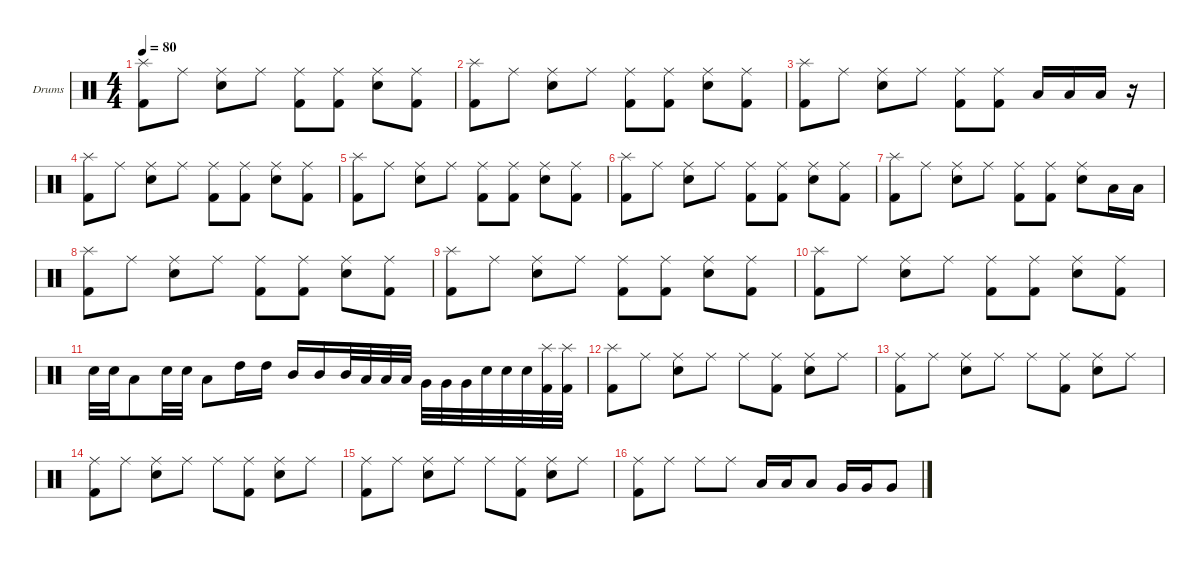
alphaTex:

\hideDynamics
\bracketExtendMode nobrackets
\firstSystemTrackNameOrientation horizontal
\otherSystemsTrackNameOrientation horizontal
\track ("Drumkit" "Drums") {instrument percussion}
\staff {score}
\articulation defaults
\ts (4 4)
\tempo 80
\clef neutral
\ks c
("Splash (hit)" "Kick (hit) 2").8{dy f} "Ride (middle)".8 ("Ride (middle)" "Snare (hit) 2").8 "Ride (middle)".8 ("Ride (middle)" "Kick (hit) 2").8 ("Ride (middle)" "Kick (hit) 2").8 ("Ride (middle)" "Snare (hit) 2").8 ("Ride (middle)" "Kick (hit) 2").8 |
("Splash (hit)" "Kick (hit) 2").8 "Ride (middle)".8 ("Ride (middle)" "Snare (hit) 2").8 "Ride (middle)".8 ("Ride (middle)" "Kick (hit) 2").8 ("Ride (middle)" "Kick (hit) 2").8 ("Ride (middle)" "Snare (hit) 2").8 ("Ride (middle)" "Kick (hit) 2").8 |
("Splash (hit)" "Kick (hit) 2").8 "Ride (middle)".8 ("Ride (middle)" "Snare (hit) 2").8 "Ride (middle)".8 ("Ride (middle)" "Kick (hit) 2").8 ("Ride (middle)" "Kick (hit) 2").8 "Low Tom (hit)".16 "Low Tom (hit)".16 "Low Tom (hit)".16 r.16 |
("Splash (hit)" "Kick (hit) 2").8 "Ride (middle)".8 ("Ride (middle)" "Snare (hit) 2").8 "Ride (middle)".8 ("Ride (middle)" "Kick (hit) 2").8 ("Ride (middle)" "Kick (hit) 2").8 ("Ride (middle)" "Snare (hit) 2").8 ("Ride (middle)" "Kick (hit) 2").8 |
("Splash (hit)" "Kick (hit) 2").8 "Ride (middle)".8 ("Ride (middle)" "Snare (hit) 2").8 "Ride (middle)".8 ("Ride (middle)" "Kick (hit) 2").8 ("Ride (middle)" "Kick (hit) 2").8 ("Ride (middle)" "Snare (hit) 2").8 ("Ride (middle)" "Kick (hit) 2").8 |
("Splash (hit)" "Kick (hit) 2").8 "Ride (middle)".8 ("Ride (middle)" "Snare (hit) 2").8 "Ride (middle)".8 ("Ride (middle)" "Kick (hit) 2").8 ("Ride (middle)" "Kick (hit) 2").8 ("Ride (middle)" "Snare (hit) 2").8 ("Ride (middle)" "Kick (hit) 2").8 |
("Splash (hit)" "Kick (hit) 2").8 "Ride (middle)".8 ("Ride (middle)" "Snare (hit) 2").8 "Ride (middle)".8 ("Ride (middle)" "Kick (hit) 2").8 ("Ride (middle)" "Kick (hit) 2").8 ("Ride (middle)" "Snare (hit) 2").8 "Low Tom (hit)".16 "Low Tom (hit)".16 |
("Splash (hit)" "Kick (hit) 2").8 "Ride (middle)".8 ("Ride (middle)" "Snare (hit) 2").8 "Ride (middle)".8 ("Ride (middle)" "Kick (hit) 2").8 ("Ride (middle)" "Kick (hit) 2").8 ("Ride (middle)" "Snare (hit) 2").8 ("Ride (middle)" "Kick (hit) 2").8 |
("Splash (hit)" "Kick (hit) 2").8 "Ride (middle)".8 ("Ride (middle)" "Snare (hit) 2").8 "Ride (middle)".8 ("Ride (middle)" "Kick (hit) 2").8 ("Ride (middle)" "Kick (hit) 2").8 ("Ride (middle)" "Snare (hit) 2").8 ("Ride (middle)" "Kick (hit) 2").8 |
("Splash (hit)" "Kick (hit) 2").8 "Ride (middle)".8 ("Ride (middle)" "Snare (hit) 2").8 "Ride (middle)".8 ("Ride (middle)" "Kick (hit) 2").8 ("Ride (middle)" "Kick (hit) 2").8 ("Ride (middle)" "Snare (hit) 2").8 ("Ride (middle)" "Kick (hit) 2").8 |
"Snare (hit) 2".32 "Snare (hit) 2".32 "Low Tom (hit)".8 "Snare (hit) 2".32 "Snare (hit) 2".32 "Low Tom (hit)".8 "High Tom (hit)".16 "High Tom (hit)".16 "Mid Tom (hit)".16 "Mid Tom (hit)".16 "Mid Tom (hit)".32 "Low Tom (hit)".32 "Low Tom (hit)".32 "Low Tom (hit)".32 "Very Low Tom (hit)".32 "Very Low Tom (hit)".32 "Very Low Tom (hit)".32 "Snare (hit) 2".32 "Snare (hit) 2".32 "Snare (hit) 2".32 ("Splash (hit)" "Kick (hit) 2").32 ("Splash (hit)" "Kick (hit) 2").32 |
("Splash (hit)" "Kick (hit) 2").8 "Ride (middle)".8 ("Ride (middle)" "Snare (hit) 2").8 "Ride (middle)".8 "Ride (middle)".8 ("Ride (middle)" "Kick (hit) 2").8 ("Ride (middle)" "Snare (hit) 2").8 "Ride (middle)".8 |
("Ride (middle)" "Kick (hit) 2").8 "Ride (middle)".8 ("Ride (middle)" "Snare (hit) 2").8 "Ride (middle)".8 "Ride (middle)".8 ("Ride (middle)" "Kick (hit) 2").8 ("Ride (middle)" "Snare (hit) 2").8 "Ride (middle)".8 |
("Ride (middle)" "Kick (hit) 2").8 "Ride (middle)".8 ("Ride (middle)" "Snare (hit) 2").8 "Ride (middle)".8 "Ride (middle)".8 ("Ride (middle)" "Kick (hit) 2").8 ("Ride (middle)" "Snare (hit) 2").8 "Ride (middle)".8 |
("Ride (middle)" "Kick (hit) 2").8 "Ride (middle)".8 ("Ride (middle)" "Snare (hit) 2").8 "Ride (middle)".8 "Ride (middle)".8 ("Ride (middle)" "Kick (hit) 2").8 ("Ride (middle)" "Snare (hit) 2").8 "Ride (middle)".8 |
("Ride (middle)" "Kick (hit) 2").8 "Ride (middle)".8 "Ride (middle)".8 "Ride (middle)".8 "Low Tom (hit)".16 "Low Tom (hit)".16 "Low Tom (hit)".8 "Very Low Tom (hit)".16 "Very Low Tom (hit)".16 "Very Low Tom (hit)".8
